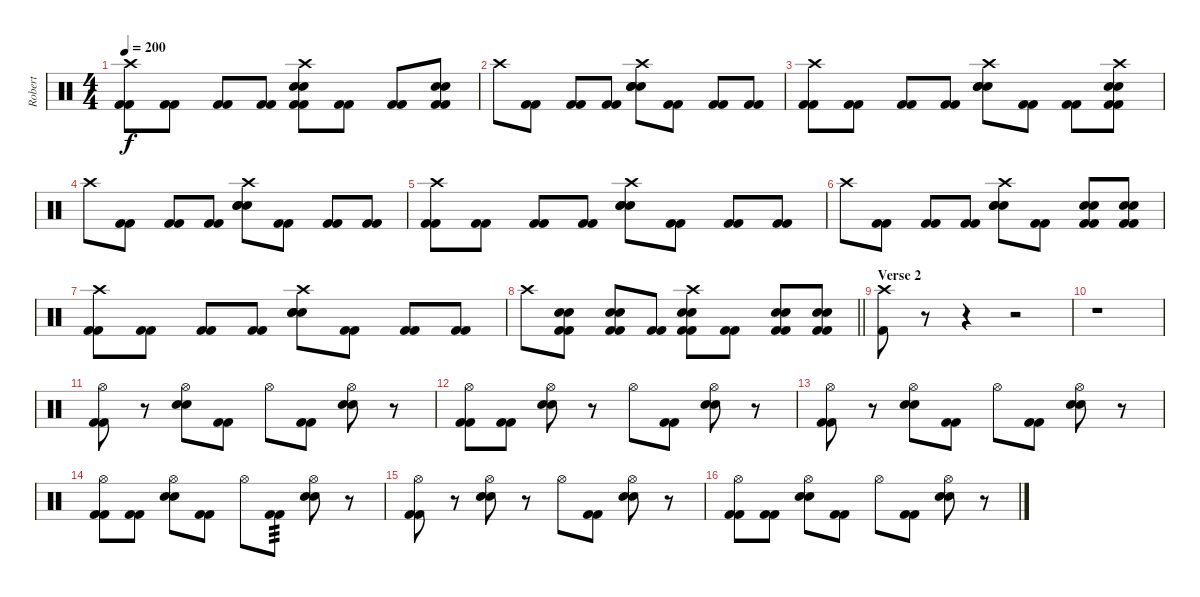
\track ("Robert" "Robert") {instrument percussion}
\staff {score}
\articulation defaults
\ts (4 4)
\tempo 200
\clef neutral
\ks c
("Crash high (hit)" "Kick (hit) 2" "Kick (hit) 2").8{dy f} ("Kick (hit) 2" "Kick (hit) 2").8 ("Kick (hit) 2" "Kick (hit) 2").8 ("Kick (hit) 2" "Kick (hit) 2").8 ("Crash high (hit)" "Electric Snare (hit)" "Electric Snare (hit)" "Kick (hit) 2" "Kick (hit) 2").8 ("Kick (hit) 2" "Kick (hit) 2").8 ("Kick (hit) 2" "Kick (hit) 2").8 ("Electric Snare (hit)" "Electric Snare (hit)" "Kick (hit) 2" "Kick (hit) 2").8 |
"Crash high (hit)".8 ("Kick (hit) 2" "Kick (hit) 2").8 ("Kick (hit) 2" "Kick (hit) 2").8 ("Kick (hit) 2" "Kick (hit) 2").8 ("Crash high (hit)" "Electric Snare (hit)" "Electric Snare (hit)" "Electric Snare (hit)").8 ("Kick (hit) 2" "Kick (hit) 2").8 ("Kick (hit) 2" "Kick (hit) 2").8 ("Kick (hit) 2" "Kick (hit) 2").8 |
("Crash high (hit)" "Kick (hit) 2" "Kick (hit) 2").8 ("Kick (hit) 2" "Kick (hit) 2").8 ("Kick (hit) 2" "Kick (hit) 2").8 ("Kick (hit) 2" "Kick (hit) 2").8 ("Crash high (hit)" "Electric Snare (hit)" "Electric Snare (hit)" "Electric Snare (hit)").8 ("Kick (hit) 2" "Kick (hit) 2").8 ("Kick (hit) 2" "Kick (hit) 2").8 ("Crash high (hit)" "Electric Snare (hit)" "Electric Snare (hit)" "Kick (hit) 2" "Kick (hit) 2").8 |
"Crash high (hit)".8 ("Kick (hit) 2" "Kick (hit) 2").8 ("Kick (hit) 2" "Kick (hit) 2").8 ("Kick (hit) 2" "Kick (hit) 2").8 ("Crash high (hit)" "Electric Snare (hit)" "Electric Snare (hit)" "Electric Snare (hit)").8 ("Kick (hit) 2" "Kick (hit) 2").8 ("Kick (hit) 2" "Kick (hit) 2").8 ("Kick (hit) 2" "Kick (hit) 2").8 |
("Crash high (hit)" "Kick (hit) 2" "Kick (hit) 2").8 ("Kick (hit) 2" "Kick (hit) 2").8 ("Kick (hit) 2" "Kick (hit) 2").8 ("Kick (hit) 2" "Kick (hit) 2").8 ("Crash high (hit)" "Electric Snare (hit)" "Electric Snare (hit)" "Electric Snare (hit)").8 ("Kick (hit) 2" "Kick (hit) 2").8 ("Kick (hit) 2" "Kick (hit) 2").8 ("Kick (hit) 2" "Kick (hit) 2").8 |
"Crash high (hit)".8 ("Kick (hit) 2" "Kick (hit) 2").8 ("Kick (hit) 2" "Kick (hit) 2").8 ("Kick (hit) 2" "Kick (hit) 2").8 ("Crash high (hit)" "Electric Snare (hit)" "Electric Snare (hit)" "Electric Snare (hit)").8 ("Kick (hit) 2" "Kick (hit) 2").8 ("Electric Snare (hit)" "Electric Snare (hit)" "Kick (hit) 2" "Kick (hit) 2").8 ("Electric Snare (hit)" "Electric Snare (hit)" "Kick (hit) 2" "Kick (hit) 2").8 |
("Crash high (hit)" "Kick (hit) 2" "Kick (hit) 2").8 ("Kick (hit) 2" "Kick (hit) 2").8 ("Kick (hit) 2" "Kick (hit) 2").8 ("Kick (hit) 2" "Kick (hit) 2").8 ("Crash high (hit)" "Electric Snare (hit)" "Electric Snare (hit)" "Electric Snare (hit)").8 ("Kick (hit) 2" "Kick (hit) 2").8 ("Kick (hit) 2" "Kick (hit) 2").8 ("Kick (hit) 2" "Kick (hit) 2").8 |
\barLineRight lightlight "Crash high (hit)".8
("Electric Snare (hit)" "Electric Snare (hit)" "Kick (hit) 2" "Kick (hit) 2").8 ("Electric Snare (hit)" "Electric Snare (hit)" "Kick (hit) 2" "Kick (hit) 2").8 ("Kick (hit) 2" "Kick (hit) 2").8 ("Crash high (hit)" "Electric Snare (hit)" "Electric Snare (hit)" "Kick (hit) 2" "Kick (hit) 2").8 ("Kick (hit) 2" "Kick (hit) 2").8 ("Electric Snare (hit)" "Electric Snare (hit)" "Kick (hit) 2" "Kick (hit) 2").8 ("Electric Snare (hit)" "Electric Snare (hit)" "Kick (hit) 2" "Kick (hit) 2").8 |
\section ("" "Verse 2")
("Crash high (hit)" "Kick (hit) 2").8 r.8 r.4 r.2 |
r.1 |
("Hi-Hat (open)" "Kick (hit) 2" "Kick (hit) 2").8 r.8 ("Hi-Hat (open)" "Electric Snare (hit)" "Electric Snare (hit)").8 ("Kick (hit) 2" "Kick (hit) 2").8 "Hi-Hat (open)".8 ("Kick (hit) 2" "Kick (hit) 2").8 ("Hi-Hat (open)" "Electric Snare (hit)" "Electric Snare (hit)").8 r.8 |
("Hi-Hat (open)" "Kick (hit) 2" "Kick (hit) 2").8 ("Kick (hit) 2" "Kick (hit) 2").8 ("Hi-Hat (open)" "Electric Snare (hit)" "Electric Snare (hit)").8 r.8 "Hi-Hat (open)".8 ("Kick (hit) 2" "Kick (hit) 2").8 ("Hi-Hat (open)" "Electric Snare (hit)" "Electric Snare (hit)").8 r.8 |
("Hi-Hat (open)" "Kick (hit) 2" "Kick (hit) 2").8 r.8 ("Hi-Hat (open)" "Electric Snare (hit)" "Electric Snare (hit)").8 ("Kick (hit) 2" "Kick (hit) 2").8 "Hi-Hat (open)".8 ("Kick (hit) 2" "Kick (hit) 2").8 ("Hi-Hat (open)" "Electric Snare (hit)" "Electric Snare (hit)").8 r.8 |
("Hi-Hat (open)" "Kick (hit) 2" "Kick (hit) 2").8 ("Kick (hit) 2" "Kick (hit) 2").8 ("Hi-Hat (open)" "Electric Snare (hit)" "Electric Snare (hit)").8 ("Kick (hit) 2" "Kick (hit) 2").8 "Hi-Hat (open)".8 ("Kick (hit) 2" "Kick (hit) 2").8{tp 3} ("Hi-Hat (open)" "Electric Snare (hit)" "Electric Snare (hit)").8 r.8 |
("Hi-Hat (open)" "Kick (hit) 2" "Kick (hit) 2").8 r.8 ("Hi-Hat (open)" "Electric Snare (hit)" "Electric Snare (hit)").8 r.8 "Hi-Hat (open)".8 ("Kick (hit) 2" "Kick (hit) 2").8 ("Hi-Hat (open)" "Electric Snare (hit)" "Electric Snare (hit)").8 r.8 |
("Hi-Hat (open)" "Kick (hit) 2" "Kick (hit) 2").8 ("Kick (hit) 2" "Kick (hit) 2").8 ("Hi-Hat (open)" "Electric Snare (hit)" "Electric Snare (hit)").8 ("Kick (hit) 2" "Kick (hit) 2").8 "Hi-Hat (open)".8 ("Kick (hit) 2" "Kick (hit) 2").8 ("Hi-Hat (open)" "Electric Snare (hit)" "Electric Snare (hit)").8 r.8
